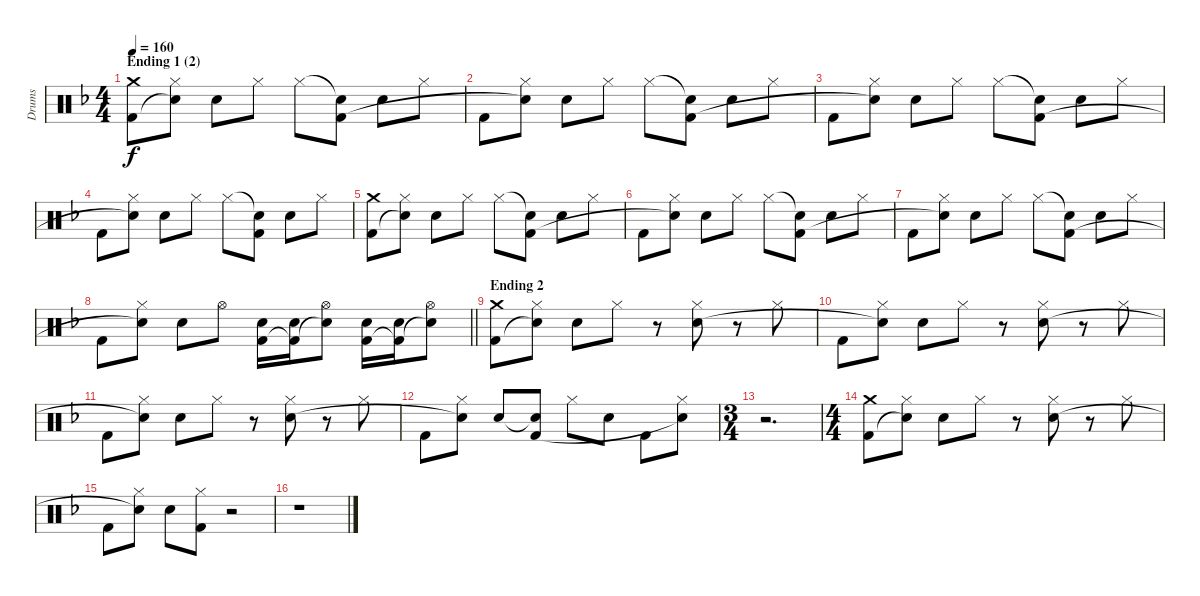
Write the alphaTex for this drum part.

\track ("Drums" "Drums") {instrument percussion}
\staff {score}
\articulation defaults
\ts (4 4)
\section ("" "Ending 1 (2)")
\tempo 160
\clef neutral
\ks f
("Crash medium (hit)" "Kick (hit) 2").8{dy f} ("Hi-Hat (closed)" "Snare (hit)"{t}).8 "Electric Snare (hit)".8 "Hi-Hat (closed)".8 "Hi-Hat (closed)".8 ("Snare (hit)"{t} "Kick (hit) 2").8 "Electric Snare (hit)".8 "Hi-Hat (closed)".8 |
"Kick (hit) 2".8 ("Hi-Hat (closed)" "Snare (hit)"{t}).8 "Electric Snare (hit)".8 "Hi-Hat (closed)".8 "Hi-Hat (closed)".8 ("Snare (hit)"{t} "Kick (hit) 2").8 "Electric Snare (hit)".8 "Hi-Hat (closed)".8 |
"Kick (hit) 2".8 ("Hi-Hat (closed)" "Snare (hit)"{t}).8 "Electric Snare (hit)".8 "Hi-Hat (closed)".8 "Hi-Hat (closed)".8 ("Snare (hit)"{t} "Kick (hit) 2").8 "Electric Snare (hit)".8 "Hi-Hat (closed)".8 |
"Kick (hit) 2".8 ("Hi-Hat (closed)" "Snare (hit)"{t}).8 "Electric Snare (hit)".8 "Hi-Hat (closed)".8 "Hi-Hat (closed)".8 ("Snare (hit)"{t} "Kick (hit) 2").8 "Electric Snare (hit)".8 "Hi-Hat (closed)".8 |
("Crash medium (hit)" "Kick (hit) 2").8 ("Hi-Hat (closed)" "Snare (hit)"{t}).8 "Electric Snare (hit)".8 "Hi-Hat (closed)".8 "Hi-Hat (closed)".8 ("Snare (hit)"{t} "Kick (hit) 2").8 "Electric Snare (hit)".8 "Hi-Hat (closed)".8 |
"Kick (hit) 2".8 ("Hi-Hat (closed)" "Snare (hit)"{t}).8 "Electric Snare (hit)".8 "Hi-Hat (closed)".8 "Hi-Hat (closed)".8 ("Snare (hit)"{t} "Kick (hit) 2").8 "Electric Snare (hit)".8 "Hi-Hat (closed)".8 |
"Kick (hit) 2".8 ("Hi-Hat (closed)" "Snare (hit)"{t}).8 "Electric Snare (hit)".8 "Hi-Hat (closed)".8 "Hi-Hat (closed)".8 ("Snare (hit)"{t} "Kick (hit) 2").8 "Electric Snare (hit)".8 "Hi-Hat (closed)".8 |
\barLineRight lightlight "Kick (hit) 2".8
("Hi-Hat (closed)" "Snare (hit)"{t}).8 "Electric Snare (hit)".8 "Hi-Hat (open)".8 ("Electric Snare (hit)" "Kick (hit) 2").16 ("Electric Snare (hit)" "Kick (hit) 2"{t}).16 ("Hi-Hat (open)" "Snare (hit)"{t}).8 ("Electric Snare (hit)" "Kick (hit) 2").16 ("Electric Snare (hit)" "Kick (hit) 2"{t}).16 ("Hi-Hat (open)" "Snare (hit)"{t}).8 |
\section ("" "Ending 2")
("Crash medium (hit)" "Kick (hit) 2").8 ("Hi-Hat (closed)" "Snare (hit)"{t}).8 "Electric Snare (hit)".8 "Hi-Hat (closed)".8 r.8 ("Hi-Hat (closed)" "Electric Snare (hit)").8 r.8 "Hi-Hat (closed)".8 |
"Kick (hit) 2".8 ("Hi-Hat (closed)" "Snare (hit)"{t}).8 "Electric Snare (hit)".8 "Hi-Hat (closed)".8 r.8 ("Hi-Hat (closed)" "Electric Snare (hit)").8 r.8 "Hi-Hat (closed)".8 |
"Kick (hit) 2".8 ("Hi-Hat (closed)" "Snare (hit)"{t}).8 "Electric Snare (hit)".8 "Hi-Hat (closed)".8 r.8 ("Hi-Hat (closed)" "Electric Snare (hit)").8 r.8 "Hi-Hat (closed)".8 |
"Kick (hit) 2".8 ("Hi-Hat (closed)" "Snare (hit)"{t}).8 "Electric Snare (hit)".8 ("Snare (hit)"{t} "Kick (hit) 2").8 "Hi-Hat (closed)".8 "Electric Snare (hit)".8 "Kick (hit) 2".8 ("Hi-Hat (closed)" "Snare (hit)"{t}).8 |
\ts (3 4)
r.2{d} |
\ts (4 4)
("Crash medium (hit)" "Kick (hit) 2").8 ("Hi-Hat (closed)" "Snare (hit)"{t}).8 "Electric Snare (hit)".8 "Hi-Hat (closed)".8 r.8 ("Hi-Hat (closed)" "Electric Snare (hit)").8 r.8 "Hi-Hat (closed)".8 |
"Kick (hit) 2".8 ("Hi-Hat (closed)" "Snare (hit)"{t}).8 "Electric Snare (hit)".8 ("Hi-Hat (closed)" "Kick (hit) 2").8 r.2 |
r.1
